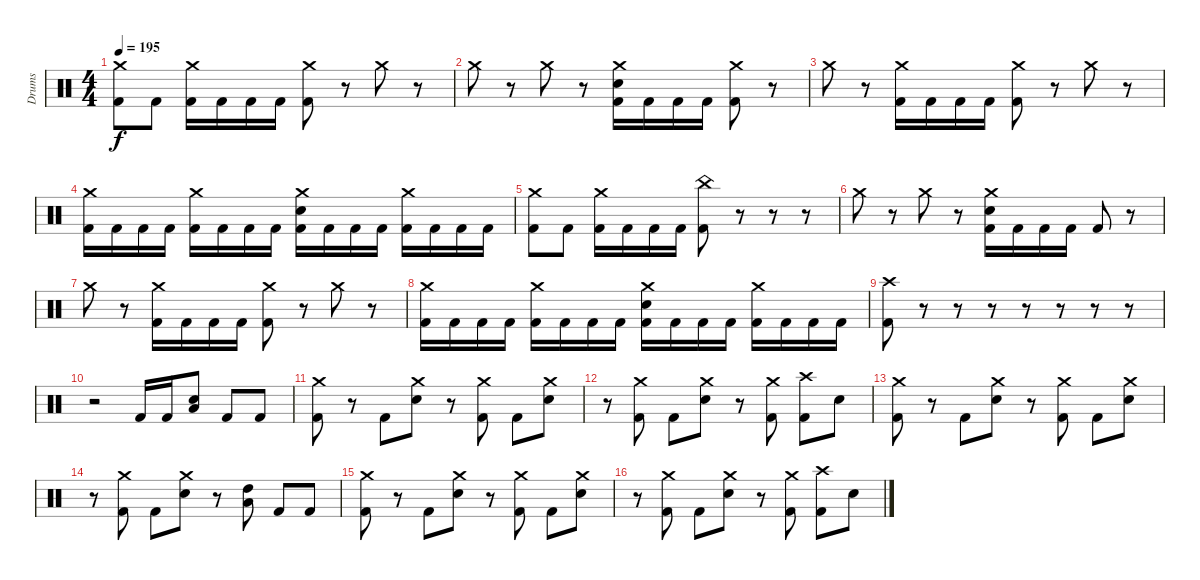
\track ("Drums" "Drums") {instrument percussion}
\staff {score}
\articulation defaults
\ts (4 4)
\tempo 195
\clef neutral
\ks c
("Crash medium (hit)" "Kick (hit) 2").8{dy f} "Kick (hit) 2".8 ("Crash medium (hit)" "Kick (hit) 2").16 "Kick (hit) 2".16 "Kick (hit) 2".16 "Kick (hit) 2".16 ("Crash medium (hit)" "Kick (hit) 2").8 r.8 "Crash medium (hit)".8 r.8 |
"Crash medium (hit)".8 r.8 "Crash medium (hit)".8 r.8 ("Crash medium (hit)" "Electric Snare (hit)" "Kick (hit) 2").16 "Kick (hit) 2".16 "Kick (hit) 2".16 "Kick (hit) 2".16 ("Crash medium (hit)" "Kick (hit) 2").8 r.8 |
"Crash medium (hit)".8 r.8 ("Crash medium (hit)" "Kick (hit) 2").16 "Kick (hit) 2".16 "Kick (hit) 2".16 "Kick (hit) 2".16 ("Crash medium (hit)" "Kick (hit) 2").8 r.8 "Crash medium (hit)".8 r.8 |
("Crash medium (hit)" "Kick (hit) 2").16 "Kick (hit) 2".16 "Kick (hit) 2".16 "Kick (hit) 2".16 ("Crash medium (hit)" "Kick (hit) 2").16 "Kick (hit) 2".16 "Kick (hit) 2".16 "Kick (hit) 2".16 ("Crash medium (hit)" "Electric Snare (hit)" "Kick (hit) 2").16 "Kick (hit) 2".16 "Kick (hit) 2".16 "Kick (hit) 2".16 ("Crash medium (hit)" "Kick (hit) 2").16 "Kick (hit) 2".16 "Kick (hit) 2".16 "Kick (hit) 2".16 |
("Crash medium (hit)" "Kick (hit) 2").8 "Kick (hit) 2".8 ("Crash medium (hit)" "Kick (hit) 2").16 "Kick (hit) 2".16 "Kick (hit) 2".16 "Kick (hit) 2".16 ("China (hit)" "Kick (hit) 2").8 r.8 r.8 r.8 |
"Crash medium (hit)".8 r.8 "Crash medium (hit)".8 r.8 ("Crash medium (hit)" "Electric Snare (hit)" "Kick (hit) 2").16 "Kick (hit) 2".16 "Kick (hit) 2".16 "Kick (hit) 2".16 "Kick (hit) 2".8 r.8 |
"Crash medium (hit)".8 r.8 ("Crash medium (hit)" "Kick (hit) 2").16 "Kick (hit) 2".16 "Kick (hit) 2".16 "Kick (hit) 2".16 ("Crash medium (hit)" "Kick (hit) 2").8 r.8 "Crash medium (hit)".8 r.8 |
("Crash medium (hit)" "Kick (hit) 2").16 "Kick (hit) 2".16 "Kick (hit) 2".16 "Kick (hit) 2".16 ("Crash medium (hit)" "Kick (hit) 2").16 "Kick (hit) 2".16 "Kick (hit) 2".16 "Kick (hit) 2".16 ("Crash medium (hit)" "Electric Snare (hit)" "Kick (hit) 2").16 "Kick (hit) 2".16 "Kick (hit) 2".16 "Kick (hit) 2".16 ("Crash medium (hit)" "Kick (hit) 2").16 "Kick (hit) 2".16 "Kick (hit) 2".16 "Kick (hit) 2".16 |
("Crash high (hit)" "Kick (hit) 2").8 r.8 r.8 r.8 r.8 r.8 r.8 r.8 |
r.2 "Kick (hit) 2".16 "Kick (hit) 2".16 ("Low Tom (hit)" "Electric Snare (hit)").8 "Kick (hit) 2".8 "Kick (hit) 2".8 |
("Crash medium (hit)" "Kick (hit) 2").8 r.8 "Kick (hit) 2".8 ("Crash medium (hit)" "Electric Snare (hit)").8 r.8 ("Crash medium (hit)" "Kick (hit) 2").8 "Kick (hit) 2".8 ("Crash medium (hit)" "Electric Snare (hit)").8 |
r.8 ("Crash medium (hit)" "Kick (hit) 2").8 "Kick (hit) 2".8 ("Crash medium (hit)" "Electric Snare (hit)").8 r.8 ("Crash medium (hit)" "Kick (hit) 2").8 ("Crash high (hit)" "Kick (hit) 2").8 "Electric Snare (hit)".8 |
("Crash medium (hit)" "Kick (hit) 2").8 r.8 "Kick (hit) 2".8 ("Crash medium (hit)" "Electric Snare (hit)").8 r.8 ("Crash medium (hit)" "Kick (hit) 2").8 "Kick (hit) 2".8 ("Crash medium (hit)" "Electric Snare (hit)").8 |
r.8 ("Crash medium (hit)" "Kick (hit) 2").8 "Kick (hit) 2".8 ("Crash medium (hit)" "Electric Snare (hit)").8 r.8 ("High Tom (hit)" "Low Tom (hit)").8 "Kick (hit) 2".8 "Kick (hit) 2".8 |
("Crash medium (hit)" "Kick (hit) 2").8 r.8 "Kick (hit) 2".8 ("Crash medium (hit)" "Electric Snare (hit)").8 r.8 ("Crash medium (hit)" "Kick (hit) 2").8 "Kick (hit) 2".8 ("Crash medium (hit)" "Electric Snare (hit)").8 |
r.8 ("Crash medium (hit)" "Kick (hit) 2").8 "Kick (hit) 2".8 ("Crash medium (hit)" "Electric Snare (hit)").8 r.8 ("Crash medium (hit)" "Kick (hit) 2").8 ("Crash high (hit)" "Kick (hit) 2").8 "Electric Snare (hit)".8
